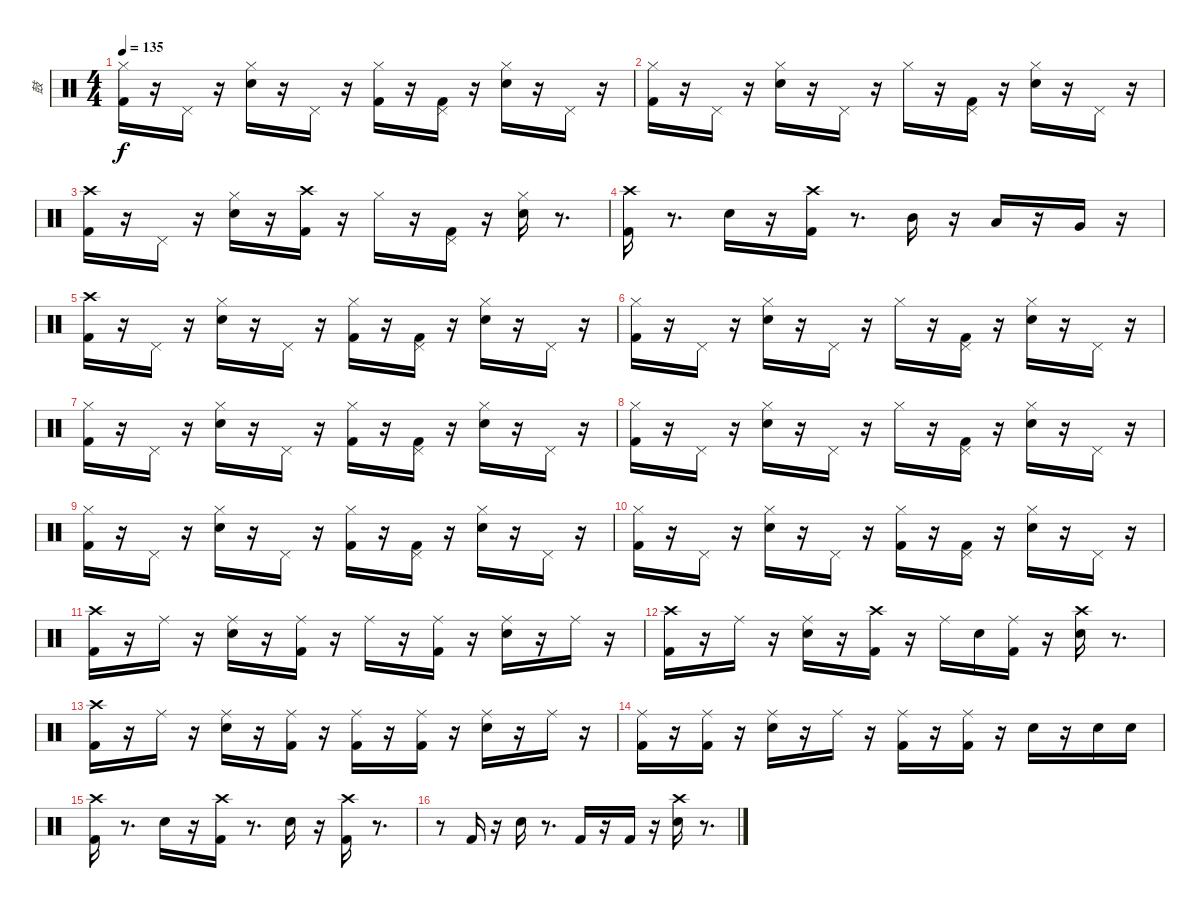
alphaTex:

\track ("鼓" "鼓") {instrument percussion}
\staff {score}
\articulation defaults
\ts (4 4)
\tempo 135
\clef neutral
\ks c
("Hi-Hat (closed)" "Kick (hit) 2").16{dy f} r.16 "Pedal Hi-Hat (hit)".16 r.16 ("Hi-Hat (closed)" "Electric Snare (hit)").16 r.16 "Pedal Hi-Hat (hit)".16 r.16 ("Kick (hit) 2" "Hi-Hat (closed)").16 r.16 ("Kick (hit) 2" "Pedal Hi-Hat (hit)").16 r.16 ("Electric Snare (hit)" "Hi-Hat (closed)").16 r.16 "Pedal Hi-Hat (hit)".16 r.16 |
("Hi-Hat (closed)" "Kick (hit) 2").16 r.16 "Pedal Hi-Hat (hit)".16 r.16 ("Electric Snare (hit)" "Hi-Hat (closed)").16 r.16 "Pedal Hi-Hat (hit)".16 r.16 "Hi-Hat (closed)".16 r.16 ("Pedal Hi-Hat (hit)" "Kick (hit) 2").16 r.16 ("Hi-Hat (closed)" "Electric Snare (hit)").16 r.16 "Pedal Hi-Hat (hit)".16 r.16 |
("Crash high (hit)" "Kick (hit) 2").16 r.16 "Pedal Hi-Hat (hit)".16 r.16 ("Electric Snare (hit)" "Hi-Hat (closed)").16 r.16 ("Crash high (hit)" "Kick (hit) 2").16 r.16 "Hi-Hat (closed)".16 r.16 ("Pedal Hi-Hat (hit)" "Kick (hit) 2").16 r.16 ("Hi-Hat (closed)" "Electric Snare (hit)").16 r.8{d} |
("Crash high (hit)" "Kick (hit) 2").16 r.8{d} "Electric Snare (hit)".16 r.16 ("Crash high (hit)" "Kick (hit) 2").16 r.8{d} "Mid Tom (hit)".16 r.16 "Low Tom (hit)".16 r.16 "Very Low Tom (hit)".16 r.16 |
("Crash high (hit)" "Kick (hit) 2").16 r.16 "Pedal Hi-Hat (hit)".16 r.16 ("Hi-Hat (closed)" "Electric Snare (hit)").16 r.16 "Pedal Hi-Hat (hit)".16 r.16 ("Hi-Hat (closed)" "Kick (hit) 2").16 r.16 ("Pedal Hi-Hat (hit)" "Kick (hit) 2").16 r.16 ("Hi-Hat (closed)" "Electric Snare (hit)").16 r.16 "Pedal Hi-Hat (hit)".16 r.16 |
("Hi-Hat (closed)" "Kick (hit) 2").16 r.16 "Pedal Hi-Hat (hit)".16 r.16 ("Electric Snare (hit)" "Hi-Hat (closed)").16 r.16 "Pedal Hi-Hat (hit)".16 r.16 "Hi-Hat (closed)".16 r.16 ("Pedal Hi-Hat (hit)" "Kick (hit) 2").16 r.16 ("Hi-Hat (closed)" "Electric Snare (hit)").16 r.16 "Pedal Hi-Hat (hit)".16 r.16 |
("Hi-Hat (closed)" "Kick (hit) 2").16 r.16 "Pedal Hi-Hat (hit)".16 r.16 ("Hi-Hat (closed)" "Electric Snare (hit)").16 r.16 "Pedal Hi-Hat (hit)".16 r.16 ("Kick (hit) 2" "Hi-Hat (closed)").16 r.16 ("Kick (hit) 2" "Pedal Hi-Hat (hit)").16 r.16 ("Electric Snare (hit)" "Hi-Hat (closed)").16 r.16 "Pedal Hi-Hat (hit)".16 r.16 |
("Hi-Hat (closed)" "Kick (hit) 2").16 r.16 "Pedal Hi-Hat (hit)".16 r.16 ("Hi-Hat (closed)" "Electric Snare (hit)").16 r.16 "Pedal Hi-Hat (hit)".16 r.16 "Hi-Hat (closed)".16 r.16 ("Pedal Hi-Hat (hit)" "Kick (hit) 2").16 r.16 ("Hi-Hat (closed)" "Electric Snare (hit)").16 r.16 "Pedal Hi-Hat (hit)".16 r.16 |
("Hi-Hat (closed)" "Kick (hit) 2").16 r.16 "Pedal Hi-Hat (hit)".16 r.16 ("Electric Snare (hit)" "Hi-Hat (closed)").16 r.16 "Pedal Hi-Hat (hit)".16 r.16 ("Hi-Hat (closed)" "Kick (hit) 2").16 r.16 ("Pedal Hi-Hat (hit)" "Kick (hit) 2").16 r.16 ("Hi-Hat (closed)" "Electric Snare (hit)").16 r.16 "Pedal Hi-Hat (hit)".16 r.16 |
("Kick (hit) 2" "Hi-Hat (closed)").16 r.16 "Pedal Hi-Hat (hit)".16 r.16 ("Electric Snare (hit)" "Hi-Hat (closed)").16 r.16 "Pedal Hi-Hat (hit)".16 r.16 ("Kick (hit) 2" "Hi-Hat (closed)").16 r.16 ("Kick (hit) 2" "Pedal Hi-Hat (hit)").16 r.16 ("Electric Snare (hit)" "Hi-Hat (closed)").16 r.16 "Pedal Hi-Hat (hit)".16 r.16 |
("Crash high (hit)" "Kick (hit) 2").16 r.16 "Ride (middle)".16 r.16 ("Ride (middle)" "Electric Snare (hit)").16 r.16 ("Ride (middle)" "Kick (hit) 2").16 r.16 "Ride (middle)".16 r.16 ("Ride (middle)" "Kick (hit) 2").16 r.16 ("Ride (middle)" "Electric Snare (hit)").16 r.16 "Ride (middle)".16 r.16 |
("Crash high (hit)" "Kick (hit) 2").16 r.16 "Ride (middle)".16 r.16 ("Electric Snare (hit)" "Ride (middle)").16 r.16 ("Kick (hit) 2" "Crash high (hit)").16 r.16 "Ride (middle)".16 "Electric Snare (hit)".16 ("Ride (middle)" "Kick (hit) 2").16 r.16 ("Crash high (hit)" "Electric Snare (hit)").16 r.8{d} |
("Crash high (hit)" "Kick (hit) 2").16 r.16 "Ride (middle)".16 r.16 ("Ride (middle)" "Electric Snare (hit)").16 r.16 ("Ride (middle)" "Kick (hit) 2").16 r.16 ("Ride (middle)" "Kick (hit) 2").16 r.16 ("Ride (middle)" "Kick (hit) 2").16 r.16 ("Ride (middle)" "Electric Snare (hit)").16 r.16 "Ride (middle)".16 r.16 |
("Ride (middle)" "Kick (hit) 2").16 r.16 ("Ride (middle)" "Kick (hit) 2").16 r.16 ("Ride (middle)" "Electric Snare (hit)").16 r.16 "Ride (middle)".16 r.16 ("Ride (middle)" "Kick (hit) 2").16 r.16 ("Ride (middle)" "Kick (hit) 2").16 r.16 "Electric Snare (hit)".16 r.16 "Electric Snare (hit)".16 "Electric Snare (hit)".16 |
("Crash high (hit)" "Kick (hit) 2").16 r.8{d} "Electric Snare (hit)".16 r.16 ("Crash high (hit)" "Kick (hit) 2").16 r.8{d} "Electric Snare (hit)".16 r.16 ("Crash high (hit)" "Kick (hit) 2").16 r.8{d} |
r.8 "Kick (hit) 2".16 r.16 "Electric Snare (hit)".16 r.8{d} "Kick (hit) 2".16 r.16 "Kick (hit) 2".16 r.16 ("Crash high (hit)" "Electric Snare (hit)").16 r.8{d}
